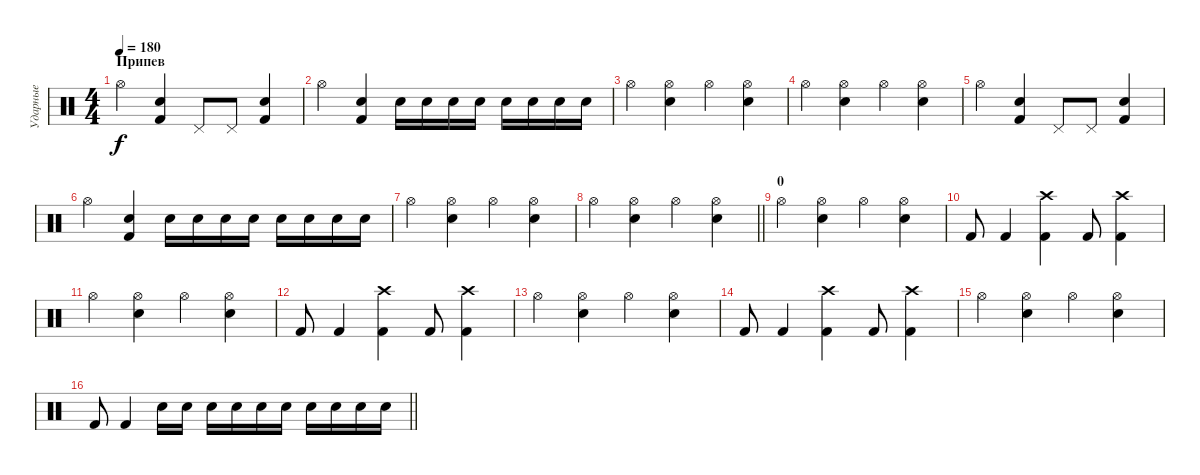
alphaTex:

\track ("Ударные" "Ударные") {instrument percussion}
\staff {score}
\articulation defaults
\ts (4 4)
\section ("" "Припев")
\tempo 180
\clef neutral
\ks c "Hi-Hat (open)".4{dy f}
("Kick (hit) 2" "Electric Snare (hit)").4 "Pedal Hi-Hat (hit)".8 "Pedal Hi-Hat (hit)".8 ("Kick (hit) 2" "Electric Snare (hit)").4 |
"Hi-Hat (open)".4 ("Kick (hit) 2" "Electric Snare (hit)").4 "Electric Snare (hit)".16 "Electric Snare (hit)".16 "Snare (hit) 2".16 "Electric Snare (hit)".16 "Snare (hit) 2".16 "Electric Snare (hit)".16 "Snare (hit) 2".16 "Electric Snare (hit)".16 |
"Hi-Hat (open)".4 ("Electric Snare (hit)" "Hi-Hat (open)").4 "Hi-Hat (open)".4 ("Electric Snare (hit)" "Hi-Hat (open)").4 |
"Hi-Hat (open)".4 ("Electric Snare (hit)" "Hi-Hat (open)").4 "Hi-Hat (open)".4 ("Electric Snare (hit)" "Hi-Hat (open)").4 |
"Hi-Hat (open)".4 ("Kick (hit) 2" "Electric Snare (hit)").4 "Pedal Hi-Hat (hit)".8 "Pedal Hi-Hat (hit)".8 ("Kick (hit) 2" "Electric Snare (hit)").4 |
"Hi-Hat (open)".4 ("Kick (hit) 2" "Electric Snare (hit)").4 "Electric Snare (hit)".16 "Electric Snare (hit)".16 "Snare (hit) 2".16 "Electric Snare (hit)".16 "Snare (hit) 2".16 "Electric Snare (hit)".16 "Snare (hit) 2".16 "Electric Snare (hit)".16 |
"Hi-Hat (open)".4 ("Electric Snare (hit)" "Hi-Hat (open)").4 "Hi-Hat (open)".4 ("Electric Snare (hit)" "Hi-Hat (open)").4 |
\barLineRight lightlight "Hi-Hat (open)".4
("Electric Snare (hit)" "Hi-Hat (open)").4 "Hi-Hat (open)".4 ("Electric Snare (hit)" "Hi-Hat (open)").4 |
\section ("" "0")
"Hi-Hat (open)".4 ("Electric Snare (hit)" "Hi-Hat (open)").4 "Hi-Hat (open)".4 ("Electric Snare (hit)" "Hi-Hat (open)").4 |
"Kick (hit) 2".8 "Kick (hit) 2".4 ("Crash high (hit)" "Kick (hit) 2").4 "Kick (hit) 2".8 ("Crash high (hit)" "Kick (hit) 2").4 |
"Hi-Hat (open)".4 ("Electric Snare (hit)" "Hi-Hat (open)").4 "Hi-Hat (open)".4 ("Electric Snare (hit)" "Hi-Hat (open)").4 |
"Kick (hit) 2".8 "Kick (hit) 2".4 ("Crash high (hit)" "Kick (hit) 2").4 "Kick (hit) 2".8 ("Crash high (hit)" "Kick (hit) 2").4 |
"Hi-Hat (open)".4 ("Electric Snare (hit)" "Hi-Hat (open)").4 "Hi-Hat (open)".4 ("Electric Snare (hit)" "Hi-Hat (open)").4 |
"Kick (hit) 2".8 "Kick (hit) 2".4 ("Crash high (hit)" "Kick (hit) 2").4 "Kick (hit) 2".8 ("Crash high (hit)" "Kick (hit) 2").4 |
"Hi-Hat (open)".4 ("Electric Snare (hit)" "Hi-Hat (open)").4 "Hi-Hat (open)".4 ("Electric Snare (hit)" "Hi-Hat (open)").4 |
\barLineRight lightlight "Kick (hit) 2".8 "Kick (hit) 2".4 "Electric Snare (hit)".16 "Snare (hit) 2".16 "Electric Snare (hit)".16 "Snare (hit) 2".16 "Electric Snare (hit)".16 "Snare (hit) 2".16 "Electric Snare (hit)".16 "Electric Snare (hit)".16 "Snare (hit) 2".16 "Electric Snare (hit)".16
